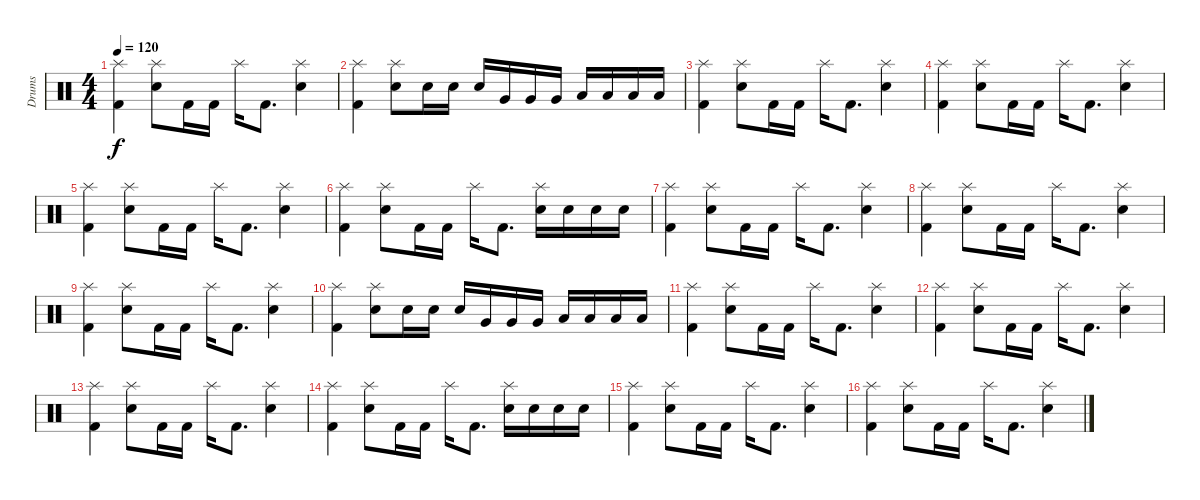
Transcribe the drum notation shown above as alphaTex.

\track ("Drums" "Drums") {instrument percussion}
\staff {score}
\articulation defaults
\ts (4 4)
\tempo 120
\clef neutral
\ks c
("Splash (hit)" "Kick (hit) 2").4{dy f} ("Splash (hit)" "Electric Snare (hit)").8 "Kick (hit) 2".16 "Kick (hit) 2".16 "Splash (hit)".16 "Kick (hit) 2".8{d} ("Splash (hit)" "Electric Snare (hit)").4 |
("Splash (hit)" "Kick (hit) 2").4 ("Splash (hit)" "Electric Snare (hit)").8 "Electric Snare (hit)".16 "Electric Snare (hit)".16 "Electric Snare (hit)".16 "Very Low Tom (hit)".16 "Very Low Tom (hit)".16 "Very Low Tom (hit)".16 "Low Tom (hit)".16 "Low Tom (hit)".16 "Low Tom (hit)".16 "Low Tom (hit)".16 |
("Splash (hit)" "Kick (hit) 2").4 ("Splash (hit)" "Electric Snare (hit)").8 "Kick (hit) 2".16 "Kick (hit) 2".16 "Splash (hit)".16 "Kick (hit) 2".8{d} ("Splash (hit)" "Electric Snare (hit)").4 |
("Splash (hit)" "Kick (hit) 2").4 ("Splash (hit)" "Electric Snare (hit)").8 "Kick (hit) 2".16 "Kick (hit) 2".16 "Splash (hit)".16 "Kick (hit) 2".8{d} ("Splash (hit)" "Electric Snare (hit)").4 |
("Splash (hit)" "Kick (hit) 2").4 ("Splash (hit)" "Electric Snare (hit)").8 "Kick (hit) 2".16 "Kick (hit) 2".16 "Splash (hit)".16 "Kick (hit) 2".8{d} ("Splash (hit)" "Electric Snare (hit)").4 |
("Splash (hit)" "Kick (hit) 2").4 ("Splash (hit)" "Electric Snare (hit)").8 "Kick (hit) 2".16 "Kick (hit) 2".16 "Splash (hit)".16 "Kick (hit) 2".8{d} ("Splash (hit)" "Electric Snare (hit)").16 "Electric Snare (hit)".16 "Electric Snare (hit)".16 "Electric Snare (hit)".16 |
("Splash (hit)" "Kick (hit) 2").4 ("Splash (hit)" "Electric Snare (hit)").8 "Kick (hit) 2".16 "Kick (hit) 2".16 "Splash (hit)".16 "Kick (hit) 2".8{d} ("Splash (hit)" "Electric Snare (hit)").4 |
("Splash (hit)" "Kick (hit) 2").4 ("Splash (hit)" "Electric Snare (hit)").8 "Kick (hit) 2".16 "Kick (hit) 2".16 "Splash (hit)".16 "Kick (hit) 2".8{d} ("Splash (hit)" "Electric Snare (hit)").4 |
("Splash (hit)" "Kick (hit) 2").4 ("Splash (hit)" "Electric Snare (hit)").8 "Kick (hit) 2".16 "Kick (hit) 2".16 "Splash (hit)".16 "Kick (hit) 2".8{d} ("Splash (hit)" "Electric Snare (hit)").4 |
("Splash (hit)" "Kick (hit) 2").4 ("Splash (hit)" "Electric Snare (hit)").8 "Electric Snare (hit)".16 "Electric Snare (hit)".16 "Electric Snare (hit)".16 "Very Low Tom (hit)".16 "Very Low Tom (hit)".16 "Very Low Tom (hit)".16 "Low Tom (hit)".16 "Low Tom (hit)".16 "Low Tom (hit)".16 "Low Tom (hit)".16 |
("Splash (hit)" "Kick (hit) 2").4 ("Splash (hit)" "Electric Snare (hit)").8 "Kick (hit) 2".16 "Kick (hit) 2".16 "Splash (hit)".16 "Kick (hit) 2".8{d} ("Splash (hit)" "Electric Snare (hit)").4 |
("Splash (hit)" "Kick (hit) 2").4 ("Splash (hit)" "Electric Snare (hit)").8 "Kick (hit) 2".16 "Kick (hit) 2".16 "Splash (hit)".16 "Kick (hit) 2".8{d} ("Splash (hit)" "Electric Snare (hit)").4 |
("Splash (hit)" "Kick (hit) 2").4 ("Splash (hit)" "Electric Snare (hit)").8 "Kick (hit) 2".16 "Kick (hit) 2".16 "Splash (hit)".16 "Kick (hit) 2".8{d} ("Splash (hit)" "Electric Snare (hit)").4 |
("Splash (hit)" "Kick (hit) 2").4 ("Splash (hit)" "Electric Snare (hit)").8 "Kick (hit) 2".16 "Kick (hit) 2".16 "Splash (hit)".16 "Kick (hit) 2".8{d} ("Splash (hit)" "Electric Snare (hit)").16 "Electric Snare (hit)".16 "Electric Snare (hit)".16 "Electric Snare (hit)".16 |
("Splash (hit)" "Kick (hit) 2").4 ("Splash (hit)" "Electric Snare (hit)").8 "Kick (hit) 2".16 "Kick (hit) 2".16 "Splash (hit)".16 "Kick (hit) 2".8{d} ("Splash (hit)" "Electric Snare (hit)").4 |
("Splash (hit)" "Kick (hit) 2").4 ("Splash (hit)" "Electric Snare (hit)").8 "Kick (hit) 2".16 "Kick (hit) 2".16 "Splash (hit)".16 "Kick (hit) 2".8{d} ("Splash (hit)" "Electric Snare (hit)").4
